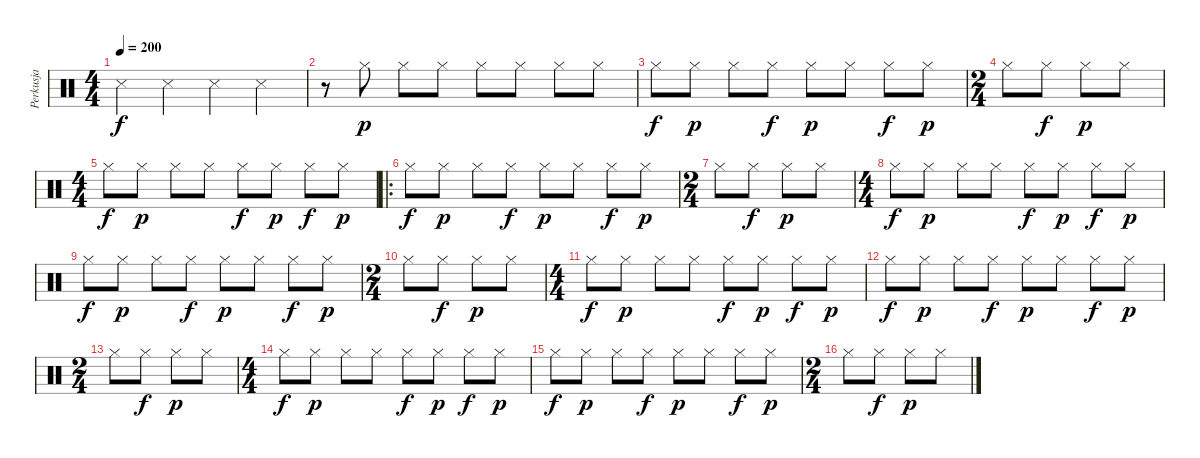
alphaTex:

\track ("Perkusja" "Perkusja") {instrument percussion}
\staff {score}
\articulation defaults
\ts (4 4)
\tempo 200
\clef neutral
\ks c "Snare (side stick) 3".4{dy f} "Snare (side stick) 3".4 "Snare (side stick) 3".4 "Snare (side stick) 3".4
|
r.8 "Hi-Hat (closed)".8{dy p} "Hi-Hat (closed)".8 "Hi-Hat (closed)".8 "Hi-Hat (closed)".8 "Hi-Hat (closed)".8 "Hi-Hat (closed)".8 "Hi-Hat (closed)".8 |
"Hi-Hat (closed)".8{dy f} "Hi-Hat (closed)".8{dy p} "Hi-Hat (closed)".8 "Hi-Hat (closed)".8{dy f} "Hi-Hat (closed)".8{dy p} "Hi-Hat (closed)".8 "Hi-Hat (closed)".8{dy f} "Hi-Hat (closed)".8{dy p} |
\ts (2 4)
"Hi-Hat (closed)".8 "Hi-Hat (closed)".8{dy f} "Hi-Hat (closed)".8{dy p} "Hi-Hat (closed)".8 |
\ts (4 4)
"Hi-Hat (closed)".8{dy f} "Hi-Hat (closed)".8{dy p} "Hi-Hat (closed)".8 "Hi-Hat (closed)".8 "Hi-Hat (closed)".8{dy f} "Hi-Hat (closed)".8{dy p} "Hi-Hat (closed)".8{dy f} "Hi-Hat (closed)".8{dy p} |
\ro "Hi-Hat (closed)".8{dy f} "Hi-Hat (closed)".8{dy p} "Hi-Hat (closed)".8 "Hi-Hat (closed)".8{dy f} "Hi-Hat (closed)".8{dy p} "Hi-Hat (closed)".8 "Hi-Hat (closed)".8{dy f} "Hi-Hat (closed)".8{dy p}
|
\ts (2 4)
"Hi-Hat (closed)".8 "Hi-Hat (closed)".8{dy f} "Hi-Hat (closed)".8{dy p} "Hi-Hat (closed)".8 |
\ts (4 4)
"Hi-Hat (closed)".8{dy f} "Hi-Hat (closed)".8{dy p} "Hi-Hat (closed)".8 "Hi-Hat (closed)".8 "Hi-Hat (closed)".8{dy f} "Hi-Hat (closed)".8{dy p} "Hi-Hat (closed)".8{dy f} "Hi-Hat (closed)".8{dy p} |
"Hi-Hat (closed)".8{dy f} "Hi-Hat (closed)".8{dy p} "Hi-Hat (closed)".8 "Hi-Hat (closed)".8{dy f} "Hi-Hat (closed)".8{dy p} "Hi-Hat (closed)".8 "Hi-Hat (closed)".8{dy f} "Hi-Hat (closed)".8{dy p} |
\ts (2 4)
"Hi-Hat (closed)".8 "Hi-Hat (closed)".8{dy f} "Hi-Hat (closed)".8{dy p} "Hi-Hat (closed)".8 |
\ts (4 4)
"Hi-Hat (closed)".8{dy f} "Hi-Hat (closed)".8{dy p} "Hi-Hat (closed)".8 "Hi-Hat (closed)".8 "Hi-Hat (closed)".8{dy f} "Hi-Hat (closed)".8{dy p} "Hi-Hat (closed)".8{dy f} "Hi-Hat (closed)".8{dy p} |
"Hi-Hat (closed)".8{dy f} "Hi-Hat (closed)".8{dy p} "Hi-Hat (closed)".8 "Hi-Hat (closed)".8{dy f} "Hi-Hat (closed)".8{dy p} "Hi-Hat (closed)".8 "Hi-Hat (closed)".8{dy f} "Hi-Hat (closed)".8{dy p} |
\ts (2 4)
"Hi-Hat (closed)".8 "Hi-Hat (closed)".8{dy f} "Hi-Hat (closed)".8{dy p} "Hi-Hat (closed)".8 |
\ts (4 4)
"Hi-Hat (closed)".8{dy f} "Hi-Hat (closed)".8{dy p} "Hi-Hat (closed)".8 "Hi-Hat (closed)".8 "Hi-Hat (closed)".8{dy f} "Hi-Hat (closed)".8{dy p} "Hi-Hat (closed)".8{dy f} "Hi-Hat (closed)".8{dy p} |
"Hi-Hat (closed)".8{dy f} "Hi-Hat (closed)".8{dy p} "Hi-Hat (closed)".8 "Hi-Hat (closed)".8{dy f} "Hi-Hat (closed)".8{dy p} "Hi-Hat (closed)".8 "Hi-Hat (closed)".8{dy f} "Hi-Hat (closed)".8{dy p} |
\ts (2 4)
"Hi-Hat (closed)".8 "Hi-Hat (closed)".8{dy f} "Hi-Hat (closed)".8{dy p} "Hi-Hat (closed)".8
